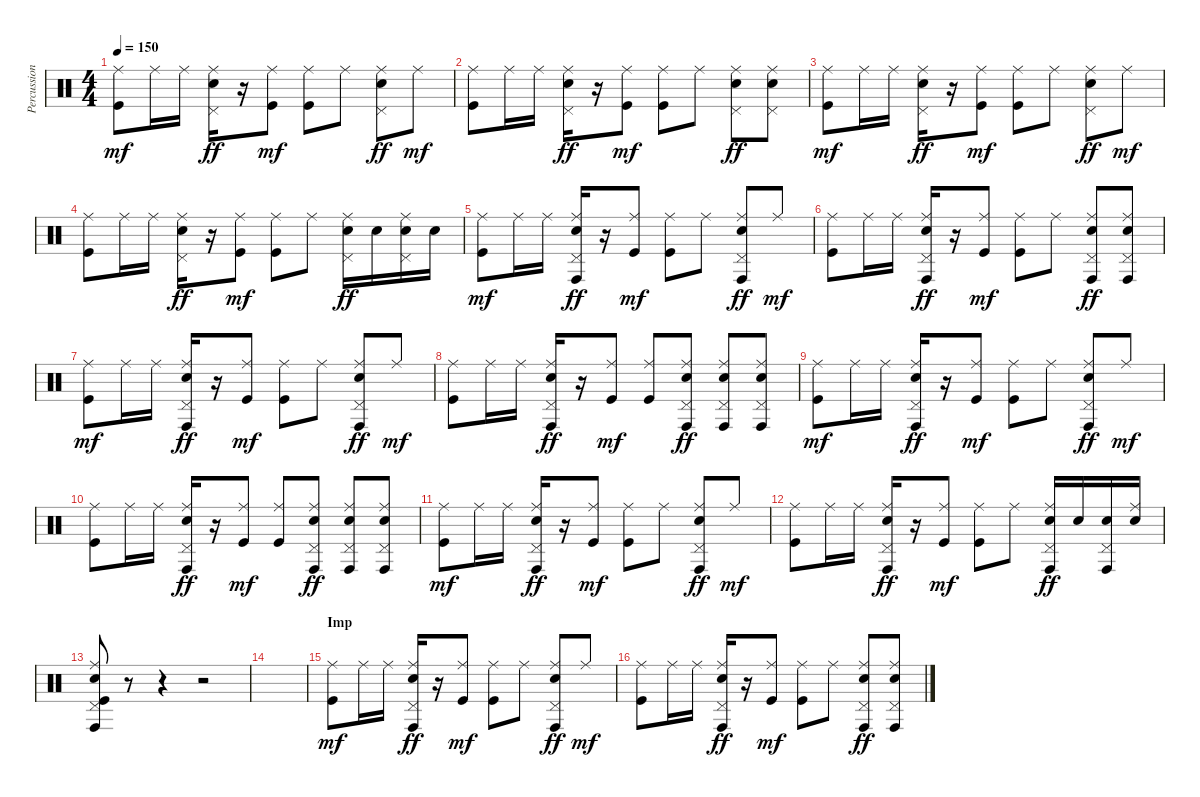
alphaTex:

\track ("Percussion" "Percussion") {instrument percussion}
\staff {score}
\articulation defaults
\ts (4 4)
\tempo 150
\clef neutral
\ks c
("Ride (middle)" "Kick (hit)").8{dy mf} "Ride (middle)".16 "Ride (middle)".16 ("Ride (middle)" "Pedal Hi-Hat (hit)" "Electric Snare (hit)").16{dy ff} r.16 ("Ride (middle)" "Kick (hit)").8{dy mf} ("Ride (middle)" "Kick (hit)").8 "Ride (middle)".8 ("Ride (middle)" "Pedal Hi-Hat (hit)" "Electric Snare (hit)").8{dy ff} "Ride (middle)".8{dy mf} |
("Ride (middle)" "Kick (hit)").8 "Ride (middle)".16 "Ride (middle)".16 ("Ride (middle)" "Pedal Hi-Hat (hit)" "Electric Snare (hit)").16{dy ff} r.16 ("Ride (middle)" "Kick (hit)").8{dy mf} ("Ride (middle)" "Kick (hit)").8 "Ride (middle)".8 ("Ride (middle)" "Pedal Hi-Hat (hit)" "Electric Snare (hit)").8{dy ff} ("Ride (middle)" "Pedal Hi-Hat (hit)" "Electric Snare (hit)").8 |
("Ride (middle)" "Kick (hit)").8{dy mf} "Ride (middle)".16 "Ride (middle)".16 ("Ride (middle)" "Pedal Hi-Hat (hit)" "Electric Snare (hit)").16{dy ff} r.16 ("Ride (middle)" "Kick (hit)").8{dy mf} ("Ride (middle)" "Kick (hit)").8 "Ride (middle)".8 ("Ride (middle)" "Pedal Hi-Hat (hit)" "Electric Snare (hit)").8{dy ff} "Ride (middle)".8{dy mf} |
("Ride (middle)" "Kick (hit)").8 "Ride (middle)".16 "Ride (middle)".16 ("Ride (middle)" "Pedal Hi-Hat (hit)" "Electric Snare (hit)").16{dy ff} r.16 ("Ride (middle)" "Kick (hit)").8{dy mf} ("Ride (middle)" "Kick (hit)").8 "Ride (middle)".8 ("Ride (middle)" "Pedal Hi-Hat (hit)" "Electric Snare (hit)").16{dy ff} "Electric Snare (hit)".16 ("Ride (middle)" "Pedal Hi-Hat (hit)" "Electric Snare (hit)").16 "Electric Snare (hit)".16 |
("Ride (middle)" "Kick (hit)").8{dy mf} "Ride (middle)".16 "Ride (middle)".16 ("Ride (middle)" "Pedal Hi-Hat (hit)" "Conga high (hit)" "Electric Snare (hit)").16{dy ff} r.16 ("Ride (middle)" "Kick (hit)").8{dy mf} ("Ride (middle)" "Kick (hit)").8 "Ride (middle)".8 ("Ride (middle)" "Pedal Hi-Hat (hit)" "Conga high (hit)" "Electric Snare (hit)").8{dy ff} "Ride (middle)".8{dy mf} |
("Ride (middle)" "Kick (hit)").8 "Ride (middle)".16 "Ride (middle)".16 ("Ride (middle)" "Pedal Hi-Hat (hit)" "Conga high (hit)" "Electric Snare (hit)").16{dy ff} r.16 ("Ride (middle)" "Kick (hit)").8{dy mf} ("Ride (middle)" "Kick (hit)").8 "Ride (middle)".8 ("Ride (middle)" "Pedal Hi-Hat (hit)" "Conga high (hit)" "Electric Snare (hit)").8{dy ff} ("Ride (middle)" "Pedal Hi-Hat (hit)" "Conga high (hit)" "Electric Snare (hit)").8 |
("Ride (middle)" "Kick (hit)").8{dy mf} "Ride (middle)".16 "Ride (middle)".16 ("Ride (middle)" "Pedal Hi-Hat (hit)" "Conga high (hit)" "Electric Snare (hit)").16{dy ff} r.16 ("Ride (middle)" "Kick (hit)").8{dy mf} ("Ride (middle)" "Kick (hit)").8 "Ride (middle)".8 ("Ride (middle)" "Pedal Hi-Hat (hit)" "Conga high (hit)" "Electric Snare (hit)").8{dy ff} "Ride (middle)".8{dy mf} |
("Ride (middle)" "Kick (hit)").8 "Ride (middle)".16 "Ride (middle)".16 ("Ride (middle)" "Pedal Hi-Hat (hit)" "Conga high (hit)" "Electric Snare (hit)").16{dy ff} r.16 ("Ride (middle)" "Kick (hit)").8{dy mf} ("Ride (middle)" "Kick (hit)").8 ("Ride (middle)" "Pedal Hi-Hat (hit)" "Conga high (hit)" "Electric Snare (hit)").8{dy ff} ("Ride (middle)" "Pedal Hi-Hat (hit)" "Conga high (hit)" "Electric Snare (hit)").8 ("Ride (middle)" "Pedal Hi-Hat (hit)" "Conga high (hit)" "Electric Snare (hit)").8 |
("Ride (middle)" "Kick (hit)").8{dy mf} "Ride (middle)".16 "Ride (middle)".16 ("Ride (middle)" "Pedal Hi-Hat (hit)" "Conga high (hit)" "Electric Snare (hit)").16{dy ff} r.16 ("Ride (middle)" "Kick (hit)").8{dy mf} ("Ride (middle)" "Kick (hit)").8 "Ride (middle)".8 ("Ride (middle)" "Pedal Hi-Hat (hit)" "Conga high (hit)" "Electric Snare (hit)").8{dy ff} "Ride (middle)".8{dy mf} |
("Ride (middle)" "Kick (hit)").8 "Ride (middle)".16 "Ride (middle)".16 ("Ride (middle)" "Pedal Hi-Hat (hit)" "Conga high (hit)" "Electric Snare (hit)").16{dy ff} r.16 ("Ride (middle)" "Kick (hit)").8{dy mf} ("Ride (middle)" "Kick (hit)").8 ("Ride (middle)" "Pedal Hi-Hat (hit)" "Conga high (hit)" "Electric Snare (hit)").8{dy ff} ("Ride (middle)" "Pedal Hi-Hat (hit)" "Conga high (hit)" "Electric Snare (hit)").8 ("Ride (middle)" "Pedal Hi-Hat (hit)" "Conga high (hit)" "Electric Snare (hit)").8 |
("Ride (middle)" "Kick (hit)").8{dy mf} "Ride (middle)".16 "Ride (middle)".16 ("Ride (middle)" "Pedal Hi-Hat (hit)" "Conga high (hit)" "Electric Snare (hit)").16{dy ff} r.16 ("Ride (middle)" "Kick (hit)").8{dy mf} ("Ride (middle)" "Kick (hit)").8 "Ride (middle)".8 ("Ride (middle)" "Pedal Hi-Hat (hit)" "Conga high (hit)" "Electric Snare (hit)").8{dy ff} "Ride (middle)".8{dy mf} |
("Ride (middle)" "Kick (hit)").8 "Ride (middle)".16 "Ride (middle)".16 ("Ride (middle)" "Pedal Hi-Hat (hit)" "Conga high (hit)" "Electric Snare (hit)").16{dy ff} r.16 ("Ride (middle)" "Kick (hit)").8{dy mf} ("Ride (middle)" "Kick (hit)").8 "Ride (middle)".8 ("Ride (middle)" "Pedal Hi-Hat (hit)" "Conga high (hit)" "Electric Snare (hit)").16{dy ff} "Electric Snare (hit)".16 ("Pedal Hi-Hat (hit)" "Conga high (hit)" "Electric Snare (hit)").16 ("Ride (middle)" "Electric Snare (hit)").16 |
("Ride (middle)" "Pedal Hi-Hat (hit)" "Conga high (hit)" "Electric Snare (hit)" "Kick (hit)").8 r.8 r.4 r.2 |
|
\section ("" "Imp")
("Ride (middle)" "Kick (hit)").8{dy mf} "Ride (middle)".16 "Ride (middle)".16 ("Ride (middle)" "Pedal Hi-Hat (hit)" "Conga high (hit)" "Electric Snare (hit)").16{dy ff} r.16 ("Ride (middle)" "Kick (hit)").8{dy mf} ("Ride (middle)" "Kick (hit)").8 "Ride (middle)".8 ("Ride (middle)" "Pedal Hi-Hat (hit)" "Conga high (hit)" "Electric Snare (hit)").8{dy ff} "Ride (middle)".8{dy mf} |
("Ride (middle)" "Kick (hit)").8 "Ride (middle)".16 "Ride (middle)".16 ("Ride (middle)" "Pedal Hi-Hat (hit)" "Conga high (hit)" "Electric Snare (hit)").16{dy ff} r.16 ("Ride (middle)" "Kick (hit)").8{dy mf} ("Ride (middle)" "Kick (hit)").8 "Ride (middle)".8 ("Ride (middle)" "Pedal Hi-Hat (hit)" "Conga high (hit)" "Electric Snare (hit)").8{dy ff} ("Ride (middle)" "Pedal Hi-Hat (hit)" "Conga high (hit)" "Electric Snare (hit)").8
